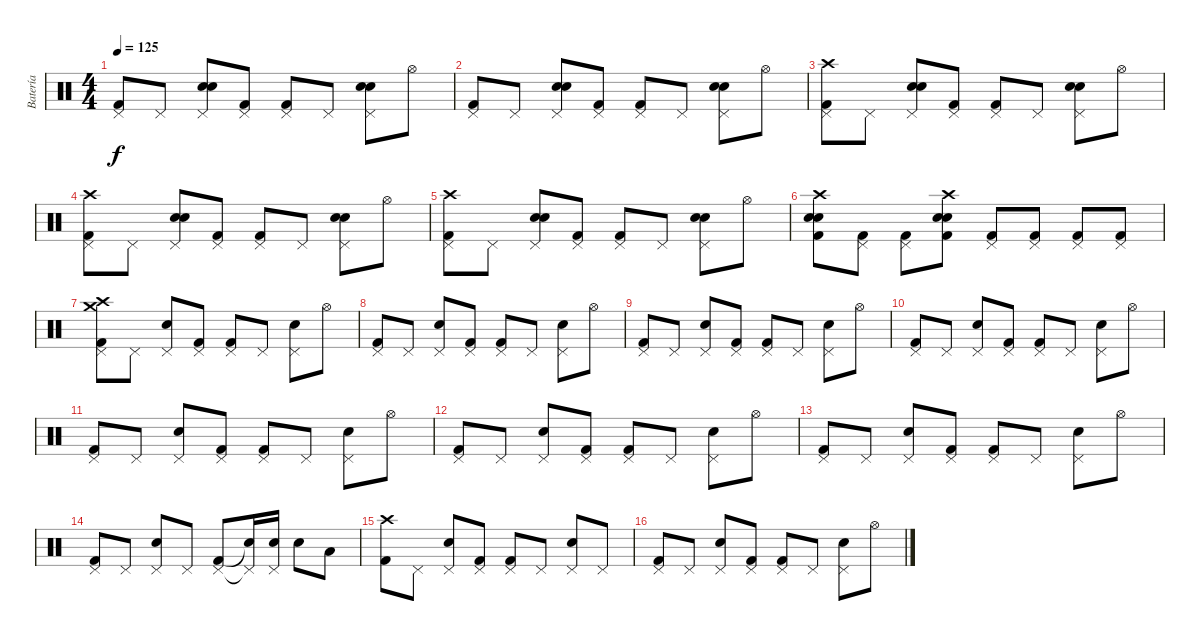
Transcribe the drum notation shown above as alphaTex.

\track ("Batería" "Batería") {instrument percussion}
\staff {score}
\articulation defaults
\ts (4 4)
\tempo 125
\clef neutral
\ks c
("Kick (hit) 2" "Pedal Hi-Hat (hit)").8{dy f} "Pedal Hi-Hat (hit)".8 ("Electric Snare (hit)" "Pedal Hi-Hat (hit)" "Snare (hit) 2").8 ("Kick (hit) 2" "Pedal Hi-Hat (hit)").8 ("Kick (hit) 2" "Pedal Hi-Hat (hit)").8 "Pedal Hi-Hat (hit)".8 ("Electric Snare (hit)" "Pedal Hi-Hat (hit)" "Snare (hit) 2").8 "Hi-Hat (open)".8 |
("Kick (hit) 2" "Pedal Hi-Hat (hit)").8 "Pedal Hi-Hat (hit)".8 ("Electric Snare (hit)" "Pedal Hi-Hat (hit)" "Snare (hit) 2").8 ("Kick (hit) 2" "Pedal Hi-Hat (hit)").8 ("Kick (hit) 2" "Pedal Hi-Hat (hit)").8 "Pedal Hi-Hat (hit)".8 ("Electric Snare (hit)" "Pedal Hi-Hat (hit)" "Snare (hit) 2").8 "Hi-Hat (open)".8 |
("Kick (hit) 2" "Pedal Hi-Hat (hit)" "Crash high (hit)").8 "Pedal Hi-Hat (hit)".8 ("Electric Snare (hit)" "Pedal Hi-Hat (hit)" "Snare (hit) 2").8 ("Kick (hit) 2" "Pedal Hi-Hat (hit)").8 ("Kick (hit) 2" "Pedal Hi-Hat (hit)").8 "Pedal Hi-Hat (hit)".8 ("Electric Snare (hit)" "Pedal Hi-Hat (hit)" "Snare (hit) 2").8 "Hi-Hat (open)".8 |
("Kick (hit) 2" "Pedal Hi-Hat (hit)" "Crash high (hit)").8 "Pedal Hi-Hat (hit)".8 ("Electric Snare (hit)" "Pedal Hi-Hat (hit)" "Snare (hit) 2").8 ("Kick (hit) 2" "Pedal Hi-Hat (hit)").8 ("Kick (hit) 2" "Pedal Hi-Hat (hit)").8 "Pedal Hi-Hat (hit)".8 ("Electric Snare (hit)" "Pedal Hi-Hat (hit)" "Snare (hit) 2").8 "Hi-Hat (open)".8 |
("Kick (hit) 2" "Pedal Hi-Hat (hit)" "Crash high (hit)").8 "Pedal Hi-Hat (hit)".8 ("Electric Snare (hit)" "Pedal Hi-Hat (hit)" "Snare (hit) 2").8 ("Kick (hit) 2" "Pedal Hi-Hat (hit)").8 ("Kick (hit) 2" "Pedal Hi-Hat (hit)").8 "Pedal Hi-Hat (hit)".8 ("Electric Snare (hit)" "Pedal Hi-Hat (hit)" "Snare (hit) 2").8 "Hi-Hat (open)".8 |
("Kick (hit) 2" "Electric Snare (hit)" "Crash high (hit)" "Snare (hit) 2").8 ("Kick (hit) 2" "Pedal Hi-Hat (hit)").8 ("Kick (hit) 2" "Pedal Hi-Hat (hit)").8 ("Electric Snare (hit)" "Kick (hit) 2" "Snare (hit) 2" "Crash high (hit)").8 ("Kick (hit) 2" "Pedal Hi-Hat (hit)").8 ("Kick (hit) 2" "Pedal Hi-Hat (hit)").8 ("Kick (hit) 2" "Pedal Hi-Hat (hit)").8 ("Kick (hit) 2" "Pedal Hi-Hat (hit)").8 |
("Crash high (hit)" "Pedal Hi-Hat (hit)" "Crash medium (hit)" "Kick (hit) 2").8 "Pedal Hi-Hat (hit)".8 ("Electric Snare (hit)" "Pedal Hi-Hat (hit)").8 ("Kick (hit) 2" "Pedal Hi-Hat (hit)").8 ("Kick (hit) 2" "Pedal Hi-Hat (hit)").8 "Pedal Hi-Hat (hit)".8 ("Electric Snare (hit)" "Pedal Hi-Hat (hit)").8 "Hi-Hat (open)".8 |
("Kick (hit) 2" "Pedal Hi-Hat (hit)").8 "Pedal Hi-Hat (hit)".8 ("Electric Snare (hit)" "Pedal Hi-Hat (hit)").8 ("Kick (hit) 2" "Pedal Hi-Hat (hit)").8 ("Kick (hit) 2" "Pedal Hi-Hat (hit)").8 "Pedal Hi-Hat (hit)".8 ("Electric Snare (hit)" "Pedal Hi-Hat (hit)").8 "Hi-Hat (open)".8 |
("Kick (hit) 2" "Pedal Hi-Hat (hit)").8 "Pedal Hi-Hat (hit)".8 ("Electric Snare (hit)" "Pedal Hi-Hat (hit)").8 ("Kick (hit) 2" "Pedal Hi-Hat (hit)").8 ("Kick (hit) 2" "Pedal Hi-Hat (hit)").8 "Pedal Hi-Hat (hit)".8 ("Electric Snare (hit)" "Pedal Hi-Hat (hit)").8 "Hi-Hat (open)".8 |
("Kick (hit) 2" "Pedal Hi-Hat (hit)").8 "Pedal Hi-Hat (hit)".8 ("Electric Snare (hit)" "Pedal Hi-Hat (hit)").8 ("Kick (hit) 2" "Pedal Hi-Hat (hit)").8 ("Kick (hit) 2" "Pedal Hi-Hat (hit)").8 "Pedal Hi-Hat (hit)".8 ("Electric Snare (hit)" "Pedal Hi-Hat (hit)").8 "Hi-Hat (open)".8 |
("Kick (hit) 2" "Pedal Hi-Hat (hit)").8 "Pedal Hi-Hat (hit)".8 ("Electric Snare (hit)" "Pedal Hi-Hat (hit)").8 ("Kick (hit) 2" "Pedal Hi-Hat (hit)").8 ("Kick (hit) 2" "Pedal Hi-Hat (hit)").8 "Pedal Hi-Hat (hit)".8 ("Electric Snare (hit)" "Pedal Hi-Hat (hit)").8 "Hi-Hat (open)".8 |
("Kick (hit) 2" "Pedal Hi-Hat (hit)").8 "Pedal Hi-Hat (hit)".8 ("Electric Snare (hit)" "Pedal Hi-Hat (hit)").8 ("Kick (hit) 2" "Pedal Hi-Hat (hit)").8 ("Kick (hit) 2" "Pedal Hi-Hat (hit)").8 "Pedal Hi-Hat (hit)".8 ("Electric Snare (hit)" "Pedal Hi-Hat (hit)").8 "Hi-Hat (open)".8 |
("Kick (hit) 2" "Pedal Hi-Hat (hit)").8 "Pedal Hi-Hat (hit)".8 ("Electric Snare (hit)" "Pedal Hi-Hat (hit)").8 ("Kick (hit) 2" "Pedal Hi-Hat (hit)").8 ("Kick (hit) 2" "Pedal Hi-Hat (hit)").8 "Pedal Hi-Hat (hit)".8 ("Electric Snare (hit)" "Pedal Hi-Hat (hit)").8 "Hi-Hat (open)".8 |
("Kick (hit) 2" "Pedal Hi-Hat (hit)").8 "Pedal Hi-Hat (hit)".8 ("Electric Snare (hit)" "Pedal Hi-Hat (hit)").8 "Pedal Hi-Hat (hit)".8 ("Kick (hit) 2" "Pedal Hi-Hat (hit)").8 ("Electric Snare (hit)"{t} "Pedal Hi-Hat (hit)"{t}).16 ("Electric Snare (hit)" "Pedal Hi-Hat (hit)").16 "Electric Snare (hit)".8 "Low Tom (hit)".8 |
("Kick (hit) 2" "Crash high (hit)").8 "Pedal Hi-Hat (hit)".8 ("Electric Snare (hit)" "Pedal Hi-Hat (hit)").8 ("Kick (hit) 2" "Pedal Hi-Hat (hit)").8 ("Kick (hit) 2" "Pedal Hi-Hat (hit)").8 "Pedal Hi-Hat (hit)".8 ("Electric Snare (hit)" "Pedal Hi-Hat (hit)").8 "Pedal Hi-Hat (hit)".8 |
("Kick (hit) 2" "Pedal Hi-Hat (hit)").8 "Pedal Hi-Hat (hit)".8 ("Electric Snare (hit)" "Pedal Hi-Hat (hit)").8 ("Kick (hit) 2" "Pedal Hi-Hat (hit)").8 ("Kick (hit) 2" "Pedal Hi-Hat (hit)").8 "Pedal Hi-Hat (hit)".8 ("Electric Snare (hit)" "Pedal Hi-Hat (hit)").8 "Hi-Hat (open)".8
